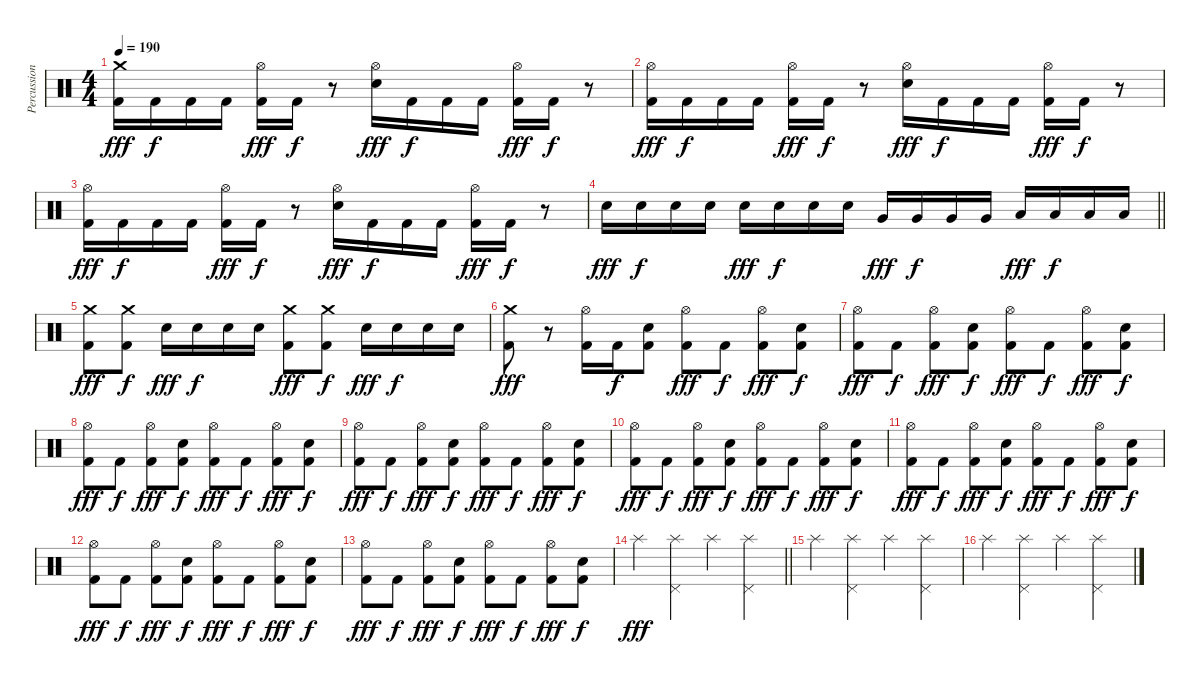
\track ("Percussions" "Percussion") {instrument percussion}
\staff {score}
\articulation defaults
\ts (4 4)
\tempo 190
\clef neutral
\ks c
("Crash medium (hit)" "Kick (hit) 2").16{dy fff} "Kick (hit) 2".16{dy f} "Kick (hit) 2".16 "Kick (hit) 2".16 ("Hi-Hat (open)" "Kick (hit) 2").16{dy fff} "Kick (hit) 2".16{dy f} r.8 ("Hi-Hat (open)" "Snare (hit) 2").16{dy fff} "Kick (hit) 2".16{dy f} "Kick (hit) 2".16 "Kick (hit) 2".16 ("Hi-Hat (open)" "Kick (hit) 2").16{dy fff} "Kick (hit) 2".16{dy f} r.8 |
("Hi-Hat (open)" "Kick (hit) 2").16{dy fff} "Kick (hit) 2".16{dy f} "Kick (hit) 2".16 "Kick (hit) 2".16 ("Hi-Hat (open)" "Kick (hit) 2").16{dy fff} "Kick (hit) 2".16{dy f} r.8 ("Hi-Hat (open)" "Snare (hit) 2").16{dy fff} "Kick (hit) 2".16{dy f} "Kick (hit) 2".16 "Kick (hit) 2".16 ("Hi-Hat (open)" "Kick (hit) 2").16{dy fff} "Kick (hit) 2".16{dy f} r.8 |
("Hi-Hat (open)" "Kick (hit) 2").16{dy fff} "Kick (hit) 2".16{dy f} "Kick (hit) 2".16 "Kick (hit) 2".16 ("Hi-Hat (open)" "Kick (hit) 2").16{dy fff} "Kick (hit) 2".16{dy f} r.8 ("Hi-Hat (open)" "Snare (hit) 2").16{dy fff} "Kick (hit) 2".16{dy f} "Kick (hit) 2".16 "Kick (hit) 2".16 ("Hi-Hat (open)" "Kick (hit) 2").16{dy fff} "Kick (hit) 2".16{dy f} r.8 |
\barLineRight lightlight "Snare (hit) 2".16{dy fff} "Snare (hit) 2".16{dy f} "Snare (hit) 2".16 "Snare (hit) 2".16 "Snare (hit) 2".16{dy fff} "Snare (hit) 2".16{dy f} "Snare (hit) 2".16 "Snare (hit) 2".16 "Very Low Tom (hit)".16{dy fff} "Very Low Tom (hit)".16{dy f} "Very Low Tom (hit)".16 "Very Low Tom (hit)".16 "Low Floor Tom (hit)".16{dy fff} "Low Floor Tom (hit)".16{dy f} "Low Floor Tom (hit)".16 "Low Floor Tom (hit)".16
|
("Crash medium (hit)" "Kick (hit) 2").8{dy fff} ("Crash medium (hit)" "Kick (hit) 2").8{dy f} "Snare (hit) 2".16{dy fff} "Snare (hit) 2".16{dy f} "Snare (hit) 2".16 "Snare (hit) 2".16 ("Crash medium (hit)" "Kick (hit) 2").8{dy fff} ("Crash medium (hit)" "Kick (hit) 2").8{dy f} "Snare (hit) 2".16{dy fff} "Snare (hit) 2".16{dy f} "Snare (hit) 2".16 "Snare (hit) 2".16 |
("Crash medium (hit)" "Kick (hit) 2").8{dy fff} r.8 ("Hi-Hat (open)" "Kick (hit) 2").16 "Kick (hit) 2".16{dy f} ("Snare (hit) 2" "Kick (hit) 2").8 ("Hi-Hat (open)" "Kick (hit) 2").8{dy fff} "Kick (hit) 2".8{dy f} ("Hi-Hat (open)" "Kick (hit) 2").8{dy fff} ("Snare (hit) 2" "Kick (hit) 2").8{dy f} |
("Hi-Hat (open)" "Kick (hit) 2").8{dy fff} "Kick (hit) 2".8{dy f} ("Hi-Hat (open)" "Kick (hit) 2").8{dy fff} ("Snare (hit) 2" "Kick (hit) 2").8{dy f} ("Hi-Hat (open)" "Kick (hit) 2").8{dy fff} "Kick (hit) 2".8{dy f} ("Hi-Hat (open)" "Kick (hit) 2").8{dy fff} ("Snare (hit) 2" "Kick (hit) 2").8{dy f} |
("Hi-Hat (open)" "Kick (hit) 2").8{dy fff} "Kick (hit) 2".8{dy f} ("Hi-Hat (open)" "Kick (hit) 2").8{dy fff} ("Snare (hit) 2" "Kick (hit) 2").8{dy f} ("Hi-Hat (open)" "Kick (hit) 2").8{dy fff} "Kick (hit) 2".8{dy f} ("Hi-Hat (open)" "Kick (hit) 2").8{dy fff} ("Snare (hit) 2" "Kick (hit) 2").8{dy f} |
("Hi-Hat (open)" "Kick (hit) 2").8{dy fff} "Kick (hit) 2".8{dy f} ("Hi-Hat (open)" "Kick (hit) 2").8{dy fff} ("Snare (hit) 2" "Kick (hit) 2").8{dy f} ("Hi-Hat (open)" "Kick (hit) 2").8{dy fff} "Kick (hit) 2".8{dy f} ("Hi-Hat (open)" "Kick (hit) 2").8{dy fff} ("Snare (hit) 2" "Kick (hit) 2").8{dy f} |
("Hi-Hat (open)" "Kick (hit) 2").8{dy fff} "Kick (hit) 2".8{dy f} ("Hi-Hat (open)" "Kick (hit) 2").8{dy fff} ("Snare (hit) 2" "Kick (hit) 2").8{dy f} ("Hi-Hat (open)" "Kick (hit) 2").8{dy fff} "Kick (hit) 2".8{dy f} ("Hi-Hat (open)" "Kick (hit) 2").8{dy fff} ("Snare (hit) 2" "Kick (hit) 2").8{dy f} |
("Hi-Hat (open)" "Kick (hit) 2").8{dy fff} "Kick (hit) 2".8{dy f} ("Hi-Hat (open)" "Kick (hit) 2").8{dy fff} ("Snare (hit) 2" "Kick (hit) 2").8{dy f} ("Hi-Hat (open)" "Kick (hit) 2").8{dy fff} "Kick (hit) 2".8{dy f} ("Hi-Hat (open)" "Kick (hit) 2").8{dy fff} ("Snare (hit) 2" "Kick (hit) 2").8{dy f} |
("Hi-Hat (open)" "Kick (hit) 2").8{dy fff} "Kick (hit) 2".8{dy f} ("Hi-Hat (open)" "Kick (hit) 2").8{dy fff} ("Snare (hit) 2" "Kick (hit) 2").8{dy f} ("Hi-Hat (open)" "Kick (hit) 2").8{dy fff} "Kick (hit) 2".8{dy f} ("Hi-Hat (open)" "Kick (hit) 2").8{dy fff} ("Snare (hit) 2" "Kick (hit) 2").8{dy f} |
("Hi-Hat (open)" "Kick (hit) 2").8{dy fff} "Kick (hit) 2".8{dy f} ("Hi-Hat (open)" "Kick (hit) 2").8{dy fff} ("Snare (hit) 2" "Kick (hit) 2").8{dy f} ("Hi-Hat (open)" "Kick (hit) 2").8{dy fff} "Kick (hit) 2".8{dy f} ("Hi-Hat (open)" "Kick (hit) 2").8{dy fff} ("Snare (hit) 2" "Kick (hit) 2").8{dy f} |
\barLineRight lightlight "Splash (hit)".4{dy fff}
("Splash (hit)" "Pedal Hi-Hat (hit)").4 "Splash (hit)".4 ("Splash (hit)" "Pedal Hi-Hat (hit)").4 |
"Splash (hit)".4 ("Splash (hit)" "Pedal Hi-Hat (hit)").4 "Splash (hit)".4 ("Splash (hit)" "Pedal Hi-Hat (hit)").4 |
"Splash (hit)".4 ("Splash (hit)" "Pedal Hi-Hat (hit)").4 "Splash (hit)".4 ("Splash (hit)" "Pedal Hi-Hat (hit)").4
